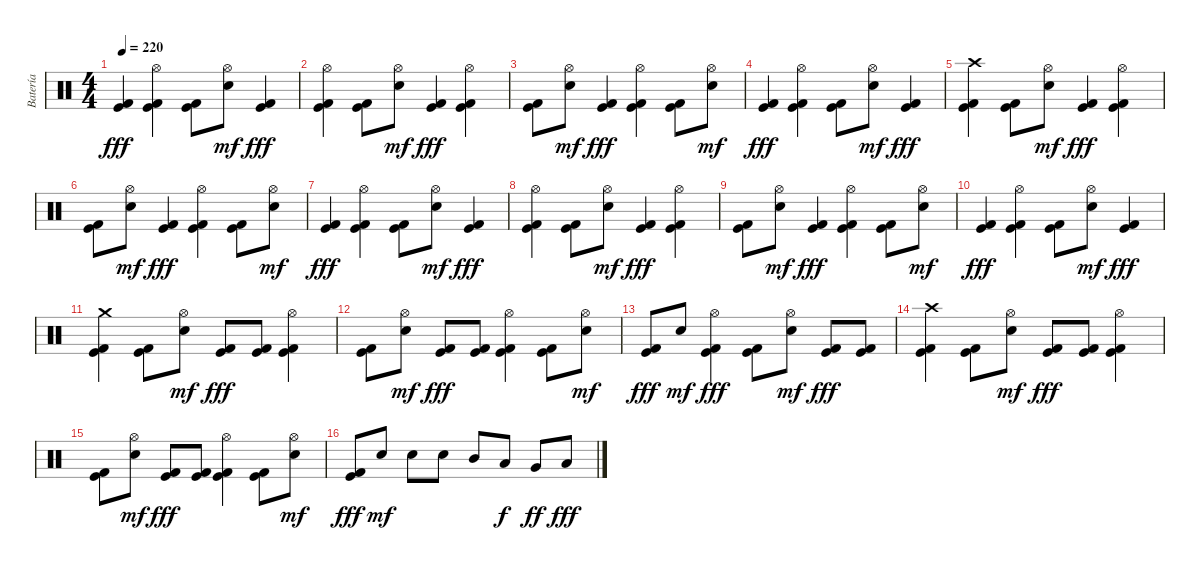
\track ("Batería" "Batería") {instrument percussion}
\staff {score}
\articulation defaults
\ts (4 4)
\tempo 220
\clef neutral
\ks c
("Kick (hit) 2" "Kick (hit)").4{dy fff} ("Hi-Hat (open)" "Kick (hit) 2" "Kick (hit)").4 ("Kick (hit) 2" "Kick (hit)").8 ("Hi-Hat (open)" "Electric Snare (hit)").8{dy mf} ("Kick (hit) 2" "Kick (hit)").4{dy fff} |
("Hi-Hat (open)" "Kick (hit) 2" "Kick (hit)").4 ("Kick (hit) 2" "Kick (hit)").8 ("Hi-Hat (open)" "Electric Snare (hit)").8{dy mf} ("Kick (hit) 2" "Kick (hit)").4{dy fff} ("Hi-Hat (open)" "Kick (hit) 2" "Kick (hit)").4 |
("Kick (hit) 2" "Kick (hit)").8 ("Hi-Hat (open)" "Electric Snare (hit)").8{dy mf} ("Kick (hit) 2" "Kick (hit)").4{dy fff} ("Hi-Hat (open)" "Kick (hit) 2" "Kick (hit)").4 ("Kick (hit) 2" "Kick (hit)").8 ("Hi-Hat (open)" "Electric Snare (hit)").8{dy mf} |
("Kick (hit) 2" "Kick (hit)").4{dy fff} ("Hi-Hat (open)" "Kick (hit) 2" "Kick (hit)").4 ("Kick (hit) 2" "Kick (hit)").8 ("Hi-Hat (open)" "Electric Snare (hit)").8{dy mf} ("Kick (hit) 2" "Kick (hit)").4{dy fff} |
("Crash high (hit)" "Kick (hit) 2" "Kick (hit)").4 ("Kick (hit) 2" "Kick (hit)").8 ("Hi-Hat (open)" "Electric Snare (hit)").8{dy mf} ("Kick (hit) 2" "Kick (hit)").4{dy fff} ("Hi-Hat (open)" "Kick (hit) 2" "Kick (hit)").4 |
("Kick (hit) 2" "Kick (hit)").8 ("Hi-Hat (open)" "Electric Snare (hit)").8{dy mf} ("Kick (hit) 2" "Kick (hit)").4{dy fff} ("Hi-Hat (open)" "Kick (hit) 2" "Kick (hit)").4 ("Kick (hit) 2" "Kick (hit)").8 ("Hi-Hat (open)" "Electric Snare (hit)").8{dy mf} |
("Kick (hit) 2" "Kick (hit)").4{dy fff} ("Hi-Hat (open)" "Kick (hit) 2" "Kick (hit)").4 ("Kick (hit) 2" "Kick (hit)").8 ("Hi-Hat (open)" "Electric Snare (hit)").8{dy mf} ("Kick (hit) 2" "Kick (hit)").4{dy fff} |
("Hi-Hat (open)" "Kick (hit) 2" "Kick (hit)").4 ("Kick (hit) 2" "Kick (hit)").8 ("Hi-Hat (open)" "Electric Snare (hit)").8{dy mf} ("Kick (hit) 2" "Kick (hit)").4{dy fff} ("Hi-Hat (open)" "Kick (hit) 2" "Kick (hit)").4 |
("Kick (hit) 2" "Kick (hit)").8 ("Hi-Hat (open)" "Electric Snare (hit)").8{dy mf} ("Kick (hit) 2" "Kick (hit)").4{dy fff} ("Hi-Hat (open)" "Kick (hit) 2" "Kick (hit)").4 ("Kick (hit) 2" "Kick (hit)").8 ("Hi-Hat (open)" "Electric Snare (hit)").8{dy mf} |
("Kick (hit) 2" "Kick (hit)").4{dy fff} ("Hi-Hat (open)" "Kick (hit) 2" "Kick (hit)").4 ("Kick (hit) 2" "Kick (hit)").8 ("Hi-Hat (open)" "Electric Snare (hit)").8{dy mf} ("Kick (hit) 2" "Kick (hit)").4{dy fff} |
("Crash medium (hit)" "Kick (hit) 2" "Kick (hit)").4 ("Kick (hit) 2" "Kick (hit)").8 ("Hi-Hat (open)" "Electric Snare (hit)").8{dy mf} ("Kick (hit) 2" "Kick (hit)").8{dy fff} ("Kick (hit) 2" "Kick (hit)").8 ("Hi-Hat (open)" "Kick (hit) 2" "Kick (hit)").4 |
("Kick (hit) 2" "Kick (hit)").8 ("Hi-Hat (open)" "Electric Snare (hit)").8{dy mf} ("Kick (hit) 2" "Kick (hit)").8{dy fff} ("Kick (hit) 2" "Kick (hit)").8 ("Hi-Hat (open)" "Kick (hit) 2" "Kick (hit)").4 ("Kick (hit) 2" "Kick (hit)").8 ("Hi-Hat (open)" "Electric Snare (hit)").8{dy mf} |
("Kick (hit) 2" "Kick (hit)").8{dy fff} "Electric Snare (hit)".8{dy mf} ("Hi-Hat (open)" "Kick (hit) 2" "Kick (hit)").4{dy fff} ("Kick (hit) 2" "Kick (hit)").8 ("Hi-Hat (open)" "Electric Snare (hit)").8{dy mf} ("Kick (hit) 2" "Kick (hit)").8{dy fff} ("Kick (hit) 2" "Kick (hit)").8 |
("Crash high (hit)" "Kick (hit) 2" "Kick (hit)").4 ("Kick (hit) 2" "Kick (hit)").8 ("Hi-Hat (open)" "Electric Snare (hit)").8{dy mf} ("Kick (hit) 2" "Kick (hit)").8{dy fff} ("Kick (hit) 2" "Kick (hit)").8 ("Hi-Hat (open)" "Kick (hit) 2" "Kick (hit)").4 |
("Kick (hit) 2" "Kick (hit)").8 ("Hi-Hat (open)" "Electric Snare (hit)").8{dy mf} ("Kick (hit) 2" "Kick (hit)").8{dy fff} ("Kick (hit) 2" "Kick (hit)").8 ("Hi-Hat (open)" "Kick (hit) 2" "Kick (hit)").4 ("Kick (hit) 2" "Kick (hit)").8 ("Hi-Hat (open)" "Electric Snare (hit)").8{dy mf} |
("Kick (hit) 2" "Kick (hit)").8{dy fff} "Electric Snare (hit)".8{dy mf} "Electric Snare (hit)".8 "Electric Snare (hit)".8 "Mid Tom (hit)".8 "Low Tom (hit)".8{dy f} "Very Low Tom (hit)".8{dy ff} "Low Floor Tom (hit)".8{dy fff}
